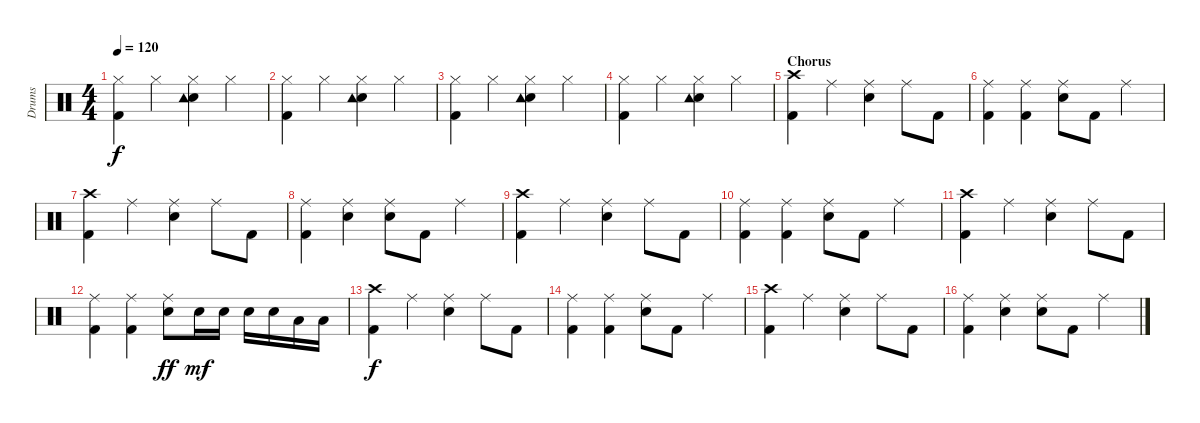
\track ("Drums" "Drums") {instrument percussion}
\staff {score}
\articulation defaults
\ts (4 4)
\tempo 120
\clef neutral
\ks c
("Hi-Hat (closed)" "Kick (hit) 2").4{dy f} "Hi-Hat (closed)".4 ("Hi-Hat (closed)" "Electric Snare (hit)" "Tambourine (hit)").4 "Hi-Hat (closed)".4 |
("Hi-Hat (closed)" "Kick (hit) 2").4 "Hi-Hat (closed)".4 ("Hi-Hat (closed)" "Electric Snare (hit)" "Tambourine (hit)").4 "Hi-Hat (closed)".4 |
("Hi-Hat (closed)" "Kick (hit) 2").4 "Hi-Hat (closed)".4 ("Hi-Hat (closed)" "Electric Snare (hit)" "Tambourine (hit)").4 "Hi-Hat (closed)".4 |
("Hi-Hat (closed)" "Kick (hit) 2").4 "Hi-Hat (closed)".4 ("Hi-Hat (closed)" "Electric Snare (hit)" "Tambourine (hit)").4 "Hi-Hat (closed)".4 |
\section ("" "Chorus")
("Crash high (hit)" "Kick (hit) 2").4 "Ride (middle)".4 ("Ride (middle)" "Electric Snare (hit)").4 "Ride (middle)".8 "Kick (hit) 2".8 |
("Ride (middle)" "Kick (hit) 2").4 ("Ride (middle)" "Kick (hit) 2").4 ("Ride (middle)" "Electric Snare (hit)").8 "Kick (hit) 2".8 "Ride (middle)".4 |
("Crash high (hit)" "Kick (hit) 2").4 "Ride (middle)".4 ("Ride (middle)" "Electric Snare (hit)").4 "Ride (middle)".8 "Kick (hit) 2".8 |
("Ride (middle)" "Kick (hit) 2").4 ("Ride (middle)" "Electric Snare (hit)").4 ("Ride (middle)" "Electric Snare (hit)").8 "Kick (hit) 2".8 "Ride (middle)".4 |
("Crash high (hit)" "Kick (hit) 2").4 "Ride (middle)".4 ("Ride (middle)" "Electric Snare (hit)").4 "Ride (middle)".8 "Kick (hit) 2".8 |
("Ride (middle)" "Kick (hit) 2").4 ("Ride (middle)" "Kick (hit) 2").4 ("Ride (middle)" "Electric Snare (hit)").8 "Kick (hit) 2".8 "Ride (middle)".4 |
("Crash high (hit)" "Kick (hit) 2").4 "Ride (middle)".4 ("Ride (middle)" "Electric Snare (hit)").4 "Ride (middle)".8 "Kick (hit) 2".8 |
("Ride (middle)" "Kick (hit) 2").4 ("Ride (middle)" "Kick (hit) 2").4 ("Ride (middle)" "Electric Snare (hit)").8{dy ff} "Electric Snare (hit)".16{dy mf} "Electric Snare (hit)".16 "Electric Snare (hit)".16 "Electric Snare (hit)".16 "Low Tom (hit)".16 "Low Tom (hit)".16 |
("Crash high (hit)" "Kick (hit) 2").4{dy f} "Ride (middle)".4 ("Ride (middle)" "Electric Snare (hit)").4 "Ride (middle)".8 "Kick (hit) 2".8 |
("Ride (middle)" "Kick (hit) 2").4 ("Ride (middle)" "Kick (hit) 2").4 ("Ride (middle)" "Electric Snare (hit)").8 "Kick (hit) 2".8 "Ride (middle)".4 |
("Crash high (hit)" "Kick (hit) 2").4 "Ride (middle)".4 ("Ride (middle)" "Electric Snare (hit)").4 "Ride (middle)".8 "Kick (hit) 2".8 |
("Ride (middle)" "Kick (hit) 2").4 ("Ride (middle)" "Electric Snare (hit)").4 ("Ride (middle)" "Electric Snare (hit)").8 "Kick (hit) 2".8 "Ride (middle)".4
